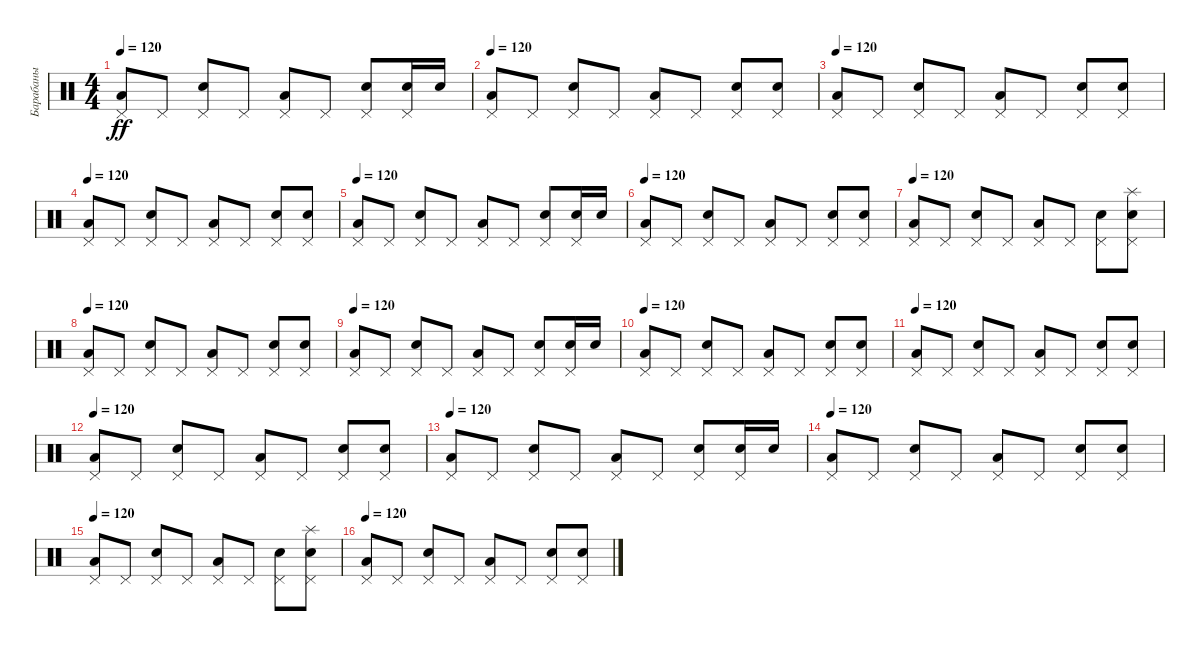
\track ("Барабаны" "Барабаны") {instrument percussion}
\staff {score}
\articulation defaults
\ts (4 4)
\tempo 120
\clef neutral
\ks c
("Low Floor Tom (hit)" "Pedal Hi-Hat (hit)").8{dy ff} "Pedal Hi-Hat (hit)".8 ("Electric Snare (hit)" "Pedal Hi-Hat (hit)").8 "Pedal Hi-Hat (hit)".8 ("Low Floor Tom (hit)" "Pedal Hi-Hat (hit)").8 "Pedal Hi-Hat (hit)".8 ("Electric Snare (hit)" "Pedal Hi-Hat (hit)").8 ("Electric Snare (hit)" "Pedal Hi-Hat (hit)").16 "Electric Snare (hit)".16 |
\tempo 120
("Low Floor Tom (hit)" "Pedal Hi-Hat (hit)").8 "Pedal Hi-Hat (hit)".8 ("Electric Snare (hit)" "Pedal Hi-Hat (hit)").8 "Pedal Hi-Hat (hit)".8 ("Low Floor Tom (hit)" "Pedal Hi-Hat (hit)").8 "Pedal Hi-Hat (hit)".8 ("Electric Snare (hit)" "Pedal Hi-Hat (hit)").8 ("Electric Snare (hit)" "Pedal Hi-Hat (hit)").8 |
\tempo 120
("Low Floor Tom (hit)" "Pedal Hi-Hat (hit)").8 "Pedal Hi-Hat (hit)".8 ("Electric Snare (hit)" "Pedal Hi-Hat (hit)").8 "Pedal Hi-Hat (hit)".8 ("Low Floor Tom (hit)" "Pedal Hi-Hat (hit)").8 "Pedal Hi-Hat (hit)".8 ("Electric Snare (hit)" "Pedal Hi-Hat (hit)").8 ("Electric Snare (hit)" "Pedal Hi-Hat (hit)").8 |
\tempo 120
("Low Floor Tom (hit)" "Pedal Hi-Hat (hit)").8 "Pedal Hi-Hat (hit)".8 ("Electric Snare (hit)" "Pedal Hi-Hat (hit)").8 "Pedal Hi-Hat (hit)".8 ("Low Floor Tom (hit)" "Pedal Hi-Hat (hit)").8 "Pedal Hi-Hat (hit)".8 ("Electric Snare (hit)" "Pedal Hi-Hat (hit)").8 ("Electric Snare (hit)" "Pedal Hi-Hat (hit)").8 |
\tempo 120
("Low Floor Tom (hit)" "Pedal Hi-Hat (hit)").8 "Pedal Hi-Hat (hit)".8 ("Electric Snare (hit)" "Pedal Hi-Hat (hit)").8 "Pedal Hi-Hat (hit)".8 ("Low Floor Tom (hit)" "Pedal Hi-Hat (hit)").8 "Pedal Hi-Hat (hit)".8 ("Electric Snare (hit)" "Pedal Hi-Hat (hit)").8 ("Electric Snare (hit)" "Pedal Hi-Hat (hit)").16 "Electric Snare (hit)".16 |
\tempo 120
("Low Floor Tom (hit)" "Pedal Hi-Hat (hit)").8 "Pedal Hi-Hat (hit)".8 ("Electric Snare (hit)" "Pedal Hi-Hat (hit)").8 "Pedal Hi-Hat (hit)".8 ("Low Floor Tom (hit)" "Pedal Hi-Hat (hit)").8 "Pedal Hi-Hat (hit)".8 ("Electric Snare (hit)" "Pedal Hi-Hat (hit)").8 ("Electric Snare (hit)" "Pedal Hi-Hat (hit)").8 |
\tempo 120
("Low Floor Tom (hit)" "Pedal Hi-Hat (hit)").8 "Pedal Hi-Hat (hit)".8 ("Electric Snare (hit)" "Pedal Hi-Hat (hit)").8 "Pedal Hi-Hat (hit)".8 ("Low Floor Tom (hit)" "Pedal Hi-Hat (hit)").8 "Pedal Hi-Hat (hit)".8 ("Electric Snare (hit)" "Pedal Hi-Hat (hit)").8 ("Electric Snare (hit)" "Pedal Hi-Hat (hit)" "Splash (hit)").8 |
\tempo 120
("Low Floor Tom (hit)" "Pedal Hi-Hat (hit)").8 "Pedal Hi-Hat (hit)".8 ("Electric Snare (hit)" "Pedal Hi-Hat (hit)").8 "Pedal Hi-Hat (hit)".8 ("Low Floor Tom (hit)" "Pedal Hi-Hat (hit)").8 "Pedal Hi-Hat (hit)".8 ("Electric Snare (hit)" "Pedal Hi-Hat (hit)").8 ("Electric Snare (hit)" "Pedal Hi-Hat (hit)").8 |
\tempo 120
("Low Floor Tom (hit)" "Pedal Hi-Hat (hit)").8 "Pedal Hi-Hat (hit)".8 ("Electric Snare (hit)" "Pedal Hi-Hat (hit)").8 "Pedal Hi-Hat (hit)".8 ("Low Floor Tom (hit)" "Pedal Hi-Hat (hit)").8 "Pedal Hi-Hat (hit)".8 ("Electric Snare (hit)" "Pedal Hi-Hat (hit)").8 ("Electric Snare (hit)" "Pedal Hi-Hat (hit)").16 "Electric Snare (hit)".16 |
\tempo 120
("Low Floor Tom (hit)" "Pedal Hi-Hat (hit)").8 "Pedal Hi-Hat (hit)".8 ("Electric Snare (hit)" "Pedal Hi-Hat (hit)").8 "Pedal Hi-Hat (hit)".8 ("Low Floor Tom (hit)" "Pedal Hi-Hat (hit)").8 "Pedal Hi-Hat (hit)".8 ("Electric Snare (hit)" "Pedal Hi-Hat (hit)").8 ("Electric Snare (hit)" "Pedal Hi-Hat (hit)").8 |
\tempo 120
("Low Floor Tom (hit)" "Pedal Hi-Hat (hit)").8 "Pedal Hi-Hat (hit)".8 ("Electric Snare (hit)" "Pedal Hi-Hat (hit)").8 "Pedal Hi-Hat (hit)".8 ("Low Floor Tom (hit)" "Pedal Hi-Hat (hit)").8 "Pedal Hi-Hat (hit)".8 ("Electric Snare (hit)" "Pedal Hi-Hat (hit)").8 ("Electric Snare (hit)" "Pedal Hi-Hat (hit)").8 |
\tempo 120
("Low Floor Tom (hit)" "Pedal Hi-Hat (hit)").8 "Pedal Hi-Hat (hit)".8 ("Electric Snare (hit)" "Pedal Hi-Hat (hit)").8 "Pedal Hi-Hat (hit)".8 ("Low Floor Tom (hit)" "Pedal Hi-Hat (hit)").8 "Pedal Hi-Hat (hit)".8 ("Electric Snare (hit)" "Pedal Hi-Hat (hit)").8 ("Electric Snare (hit)" "Pedal Hi-Hat (hit)").8 |
\tempo 120
("Low Floor Tom (hit)" "Pedal Hi-Hat (hit)").8 "Pedal Hi-Hat (hit)".8 ("Electric Snare (hit)" "Pedal Hi-Hat (hit)").8 "Pedal Hi-Hat (hit)".8 ("Low Floor Tom (hit)" "Pedal Hi-Hat (hit)").8 "Pedal Hi-Hat (hit)".8 ("Electric Snare (hit)" "Pedal Hi-Hat (hit)").8 ("Electric Snare (hit)" "Pedal Hi-Hat (hit)").16 "Electric Snare (hit)".16 |
\tempo 120
("Low Floor Tom (hit)" "Pedal Hi-Hat (hit)").8 "Pedal Hi-Hat (hit)".8 ("Electric Snare (hit)" "Pedal Hi-Hat (hit)").8 "Pedal Hi-Hat (hit)".8 ("Low Floor Tom (hit)" "Pedal Hi-Hat (hit)").8 "Pedal Hi-Hat (hit)".8 ("Electric Snare (hit)" "Pedal Hi-Hat (hit)").8 ("Electric Snare (hit)" "Pedal Hi-Hat (hit)").8 |
\tempo 120
("Low Floor Tom (hit)" "Pedal Hi-Hat (hit)").8 "Pedal Hi-Hat (hit)".8 ("Electric Snare (hit)" "Pedal Hi-Hat (hit)").8 "Pedal Hi-Hat (hit)".8 ("Low Floor Tom (hit)" "Pedal Hi-Hat (hit)").8 "Pedal Hi-Hat (hit)".8 ("Electric Snare (hit)" "Pedal Hi-Hat (hit)").8 ("Electric Snare (hit)" "Pedal Hi-Hat (hit)" "Splash (hit)").8 |
\tempo 120
("Low Floor Tom (hit)" "Pedal Hi-Hat (hit)").8 "Pedal Hi-Hat (hit)".8 ("Electric Snare (hit)" "Pedal Hi-Hat (hit)").8 "Pedal Hi-Hat (hit)".8 ("Low Floor Tom (hit)" "Pedal Hi-Hat (hit)").8 "Pedal Hi-Hat (hit)".8 ("Electric Snare (hit)" "Pedal Hi-Hat (hit)").8 ("Electric Snare (hit)" "Pedal Hi-Hat (hit)").8
